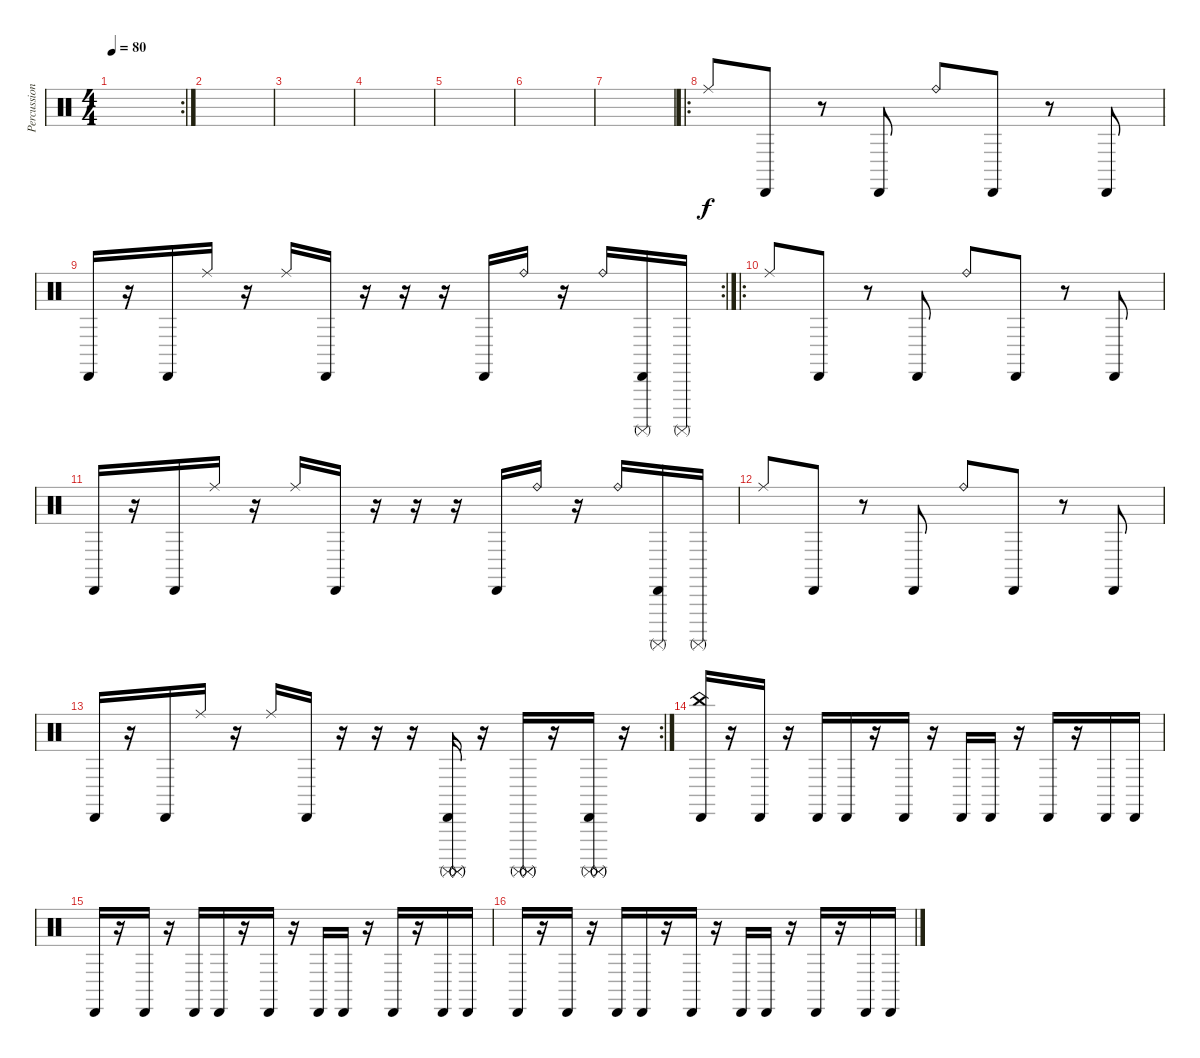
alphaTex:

\track ("Percussion" "Percussion") {instrument percussion}
\staff {score}
\articulation defaults
\rc 2
\ts (4 4)
\tempo 80
\clef neutral
\ks c
|
|
|
|
|
|
|
\ro "Ride (middle)".8 "Cabasa (hit)".8
r.8 "Cabasa (hit)".8 "Ride (bell)".8 "Cabasa (hit)".8 r.8 "Cabasa (hit)".8 |
\rc 2 "Cabasa (hit)".16
r.16 "Cabasa (hit)".16 "Ride (middle)".16 r.16 "Ride (middle)".16 "Cabasa (hit)".16 r.16 r.16 r.16 "Cabasa (hit)".16 "Ride (bell)".16 r.16 "Ride (bell)".16 ("Cabasa (hit)" "Surdo (mute)").16 "Surdo (mute)".16 |
\ro "Ride (middle)".8 "Cabasa (hit)".8
r.8 "Cabasa (hit)".8 "Ride (bell)".8 "Cabasa (hit)".8 r.8 "Cabasa (hit)".8 |
"Cabasa (hit)".16 r.16 "Cabasa (hit)".16 "Ride (middle)".16 r.16 "Ride (middle)".16 "Cabasa (hit)".16 r.16 r.16 r.16 "Cabasa (hit)".16 "Ride (bell)".16 r.16 "Ride (bell)".16 ("Cabasa (hit)" "Surdo (mute)").16 "Surdo (mute)".16 |
"Ride (middle)".8 "Cabasa (hit)".8 r.8 "Cabasa (hit)".8 "Ride (bell)".8 "Cabasa (hit)".8 r.8 "Cabasa (hit)".8 |
\rc 2 "Cabasa (hit)".16
r.16 "Cabasa (hit)".16 "Ride (middle)".16 r.16 "Ride (middle)".16 "Cabasa (hit)".16 r.16 r.16 r.16 ("Cabasa (hit)" "Surdo (mute)" "Surdo (mute)" "Surdo (mute)").16 r.16 ("Surdo (mute)" "Surdo (mute)" "Surdo (mute)").16 r.16 ("Cabasa (hit)" "Surdo (mute)" "Surdo (mute)" "Surdo (mute)").16 r.16 |
("Cabasa (hit)" "China (hit)").16 r.16 "Cabasa (hit)".16 r.16 "Cabasa (hit)".16 "Cabasa (hit)".16 r.16 "Cabasa (hit)".16 r.16 "Cabasa (hit)".16 "Cabasa (hit)".16 r.16 "Cabasa (hit)".16 r.16 "Cabasa (hit)".16 "Cabasa (hit)".16 |
"Cabasa (hit)".16 r.16 "Cabasa (hit)".16 r.16 "Cabasa (hit)".16 "Cabasa (hit)".16 r.16 "Cabasa (hit)".16 r.16 "Cabasa (hit)".16 "Cabasa (hit)".16 r.16 "Cabasa (hit)".16 r.16 "Cabasa (hit)".16 "Cabasa (hit)".16 |
"Cabasa (hit)".16 r.16 "Cabasa (hit)".16 r.16 "Cabasa (hit)".16 "Cabasa (hit)".16 r.16 "Cabasa (hit)".16 r.16 "Cabasa (hit)".16 "Cabasa (hit)".16 r.16 "Cabasa (hit)".16 r.16 "Cabasa (hit)".16 "Cabasa (hit)".16
